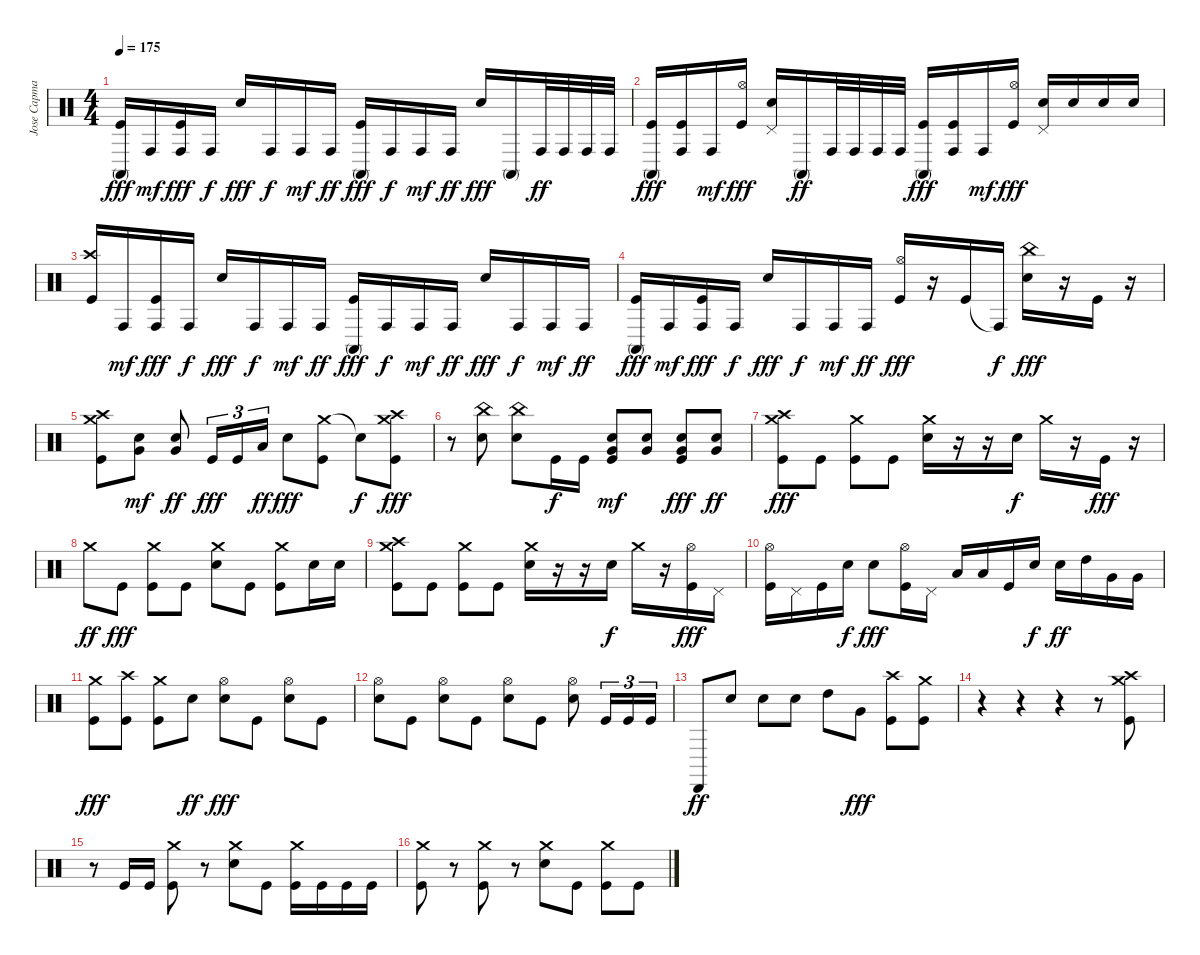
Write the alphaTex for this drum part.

\track ("Jose Capmany" "Jose Capma") {instrument percussion}
\staff {score}
\articulation defaults
\ts (4 4)
\tempo 175
\clef neutral
\ks c
("Conga high (mute)" "Kick (hit)").16{dy fff} "Conga high (hit)".16{dy mf} ("Conga high (hit)" "Kick (hit)").16{dy fff} "Conga high (hit)".16{dy f} "Snare (hit) 2".16{dy fff} "Conga high (hit)".16{dy f} "Conga high (hit)".16{dy mf} "Conga high (hit)".16{dy ff} ("Conga high (mute)" "Kick (hit)").16{dy fff} "Conga high (hit)".16{dy f} "Conga high (hit)".16{dy mf} "Conga high (hit)".16{dy ff} "Snare (hit) 2".16{dy fff} "Conga high (mute)".16 "Conga high (hit)".32{dy ff} "Conga high (hit)".32 "Conga high (hit)".32 "Conga high (hit)".32 |
("Conga high (mute)" "Kick (hit)").16{dy fff} ("Conga high (hit)" "Kick (hit)").16 "Conga high (hit)".16{dy mf} ("Hi-Hat (open)" "Kick (hit)").16{dy fff} ("Pedal Hi-Hat (hit)" "Snare (hit) 2").16 "Conga high (mute)".16{dy ff} "Conga high (hit)".32 "Conga high (hit)".32 "Conga high (hit)".32 "Conga high (hit)".32 ("Conga high (mute)" "Kick (hit)").16{dy fff} ("Conga high (hit)" "Kick (hit)").16 "Conga high (hit)".16{dy mf} ("Hi-Hat (open)" "Kick (hit)").16{dy fff} ("Pedal Hi-Hat (hit)" "Snare (hit) 2").16 "Snare (hit) 2".16 "Snare (hit) 2".16 "Snare (hit) 2".16 |
("Crash high (hit)" "Kick (hit)").16 "Conga high (hit)".16{dy mf} ("Conga high (hit)" "Kick (hit)").16{dy fff} "Conga high (hit)".16{dy f} "Snare (hit) 2".16{dy fff} "Conga high (hit)".16{dy f} "Conga high (hit)".16{dy mf} "Conga high (hit)".16{dy ff} ("Conga high (mute)" "Kick (hit)").16{dy fff} "Conga high (hit)".16{dy f} "Conga high (hit)".16{dy mf} "Conga high (hit)".16{dy ff} "Snare (hit) 2".16{dy fff} "Conga high (hit)".16{dy f} "Conga high (hit)".16{dy mf} "Conga high (hit)".16{dy ff} |
("Conga high (mute)" "Kick (hit)").16{dy fff} "Conga high (hit)".16{dy mf} ("Conga high (hit)" "Kick (hit)").16{dy fff} "Conga high (hit)".16{dy f} "Snare (hit) 2".16{dy fff} "Conga high (hit)".16{dy f} "Conga high (hit)".16{dy mf} "Conga high (hit)".16{dy ff} ("Hi-Hat (open)" "Kick (hit)").16{dy fff} r.16 "Kick (hit)".16 "Conga high (hit)"{t}.16{dy f} ("China (hit)" "Snare (hit) 2").16{dy fff} r.16 "Kick (hit)".16 r.16 |
("Crash high (hit)" "Crash medium (hit)" "Kick (hit)").8 ("Snare (hit) 2" "Very Low Tom (hit)").8{dy mf} ("Snare (hit) 2" "Very Low Tom (hit)").8{dy ff} "Kick (hit)".16{tu (3 2) dy fff} "Kick (hit)".16{tu (3 2)} "Low Floor Tom (hit)".16{tu (3 2) dy ff} "Snare (hit) 2".8{dy fff} ("Crash medium (hit)" "Kick (hit)").8 "Snare (hit)"{t}.8{dy f} ("Crash medium (hit)" "Crash high (hit)" "Kick (hit)").8{dy fff} |
r.8 ("China (hit)" "Snare (hit) 2").8 ("China (hit)" "Snare (hit) 2").8 "Kick (hit)".16{dy f} "Kick (hit)".16 ("Snare (hit) 2" "Very Low Tom (hit)" "Kick (hit)").8{dy mf} ("Snare (hit) 2" "Very Low Tom (hit)").8 ("Snare (hit) 2" "Very Low Tom (hit)" "Kick (hit)").8{dy fff} ("Snare (hit) 2" "Very Low Tom (hit)").8{dy ff} |
("Crash high (hit)" "Crash medium (hit)" "Kick (hit)").8{dy fff} "Kick (hit)".8 ("Crash medium (hit)" "Kick (hit)").8 "Kick (hit)".8 ("Crash medium (hit)" "Snare (hit) 2").16 r.16 r.16 "Snare (hit) 2".16{dy f} "Crash medium (hit)".16 r.16 "Kick (hit)".16{dy fff} r.16 |
"Crash medium (hit)".8{dy ff} "Kick (hit)".8{dy fff} ("Crash medium (hit)" "Kick (hit)").8 "Kick (hit)".8 ("Crash medium (hit)" "Snare (hit) 2").8 "Kick (hit)".8 ("Crash medium (hit)" "Kick (hit)").8 "Snare (hit) 2".16 "Snare (hit) 2".16 |
("Crash high (hit)" "Crash medium (hit)" "Kick (hit)").8 "Kick (hit)".8 ("Crash medium (hit)" "Kick (hit)").8 "Kick (hit)".8 ("Crash medium (hit)" "Snare (hit) 2").16 r.16 r.16 "Snare (hit) 2".16{dy f} "Crash medium (hit)".16 r.16 ("Hi-Hat (open)" "Kick (hit)").16{dy fff} "Pedal Hi-Hat (hit)".16 |
("Hi-Hat (open)" "Kick (hit)").16 "Pedal Hi-Hat (hit)".16 "Kick (hit)".16 "Snare (hit) 2".16{dy f} "Snare (hit) 2".8{dy fff} ("Hi-Hat (open)" "Kick (hit)").16 "Pedal Hi-Hat (hit)".16 "Low Floor Tom (hit)".16 "Low Floor Tom (hit)".16 "Kick (hit)".16 "Snare (hit) 2".16{dy f} "Snare (hit) 2".16{dy ff} "High Tom (hit)".16 "Very Low Tom (hit)".16 "Very Low Tom (hit)".16 |
("Crash medium (hit)" "Kick (hit)").8{dy fff} ("Crash high (hit)" "Kick (hit)").8 ("Crash medium (hit)" "Kick (hit)").8 "Snare (hit) 2".8{dy ff} ("Hi-Hat (open)" "Snare (hit) 2").8{dy fff} "Kick (hit)".8 ("Hi-Hat (open)" "Snare (hit) 2").8 "Kick (hit)".8 |
("Hi-Hat (open)" "Snare (hit) 2").8 "Kick (hit)".8 ("Hi-Hat (open)" "Snare (hit) 2").8 "Kick (hit)".8 ("Hi-Hat (open)" "Snare (hit) 2").8 "Kick (hit)".8 ("Hi-Hat (open)" "Snare (hit) 2").8 "Kick (hit)".16{tu (3 2)} "Kick (hit)".16{tu (3 2)} "Kick (hit)".16{tu (3 2)} |
"Cabasa (hit)".8{dy ff} "Snare (hit) 2".8 "Snare (hit) 2".8 "Snare (hit) 2".8 "High Tom (hit)".8 "Very Low Tom (hit)".8{dy fff} ("Crash high (hit)" "Kick (hit)").8 ("Crash medium (hit)" "Kick (hit)").8 |
r.4 r.4 r.4 r.8 ("Crash high (hit)" "Crash medium (hit)" "Kick (hit)").8 |
r.8 "Kick (hit)".16 "Kick (hit)".16 ("Crash medium (hit)" "Kick (hit)").8 r.8 ("Crash medium (hit)" "Snare (hit) 2").8 "Kick (hit)".8 ("Crash medium (hit)" "Kick (hit)").16 "Kick (hit)".16 "Kick (hit)".16 "Kick (hit)".16 |
("Crash medium (hit)" "Kick (hit)").8 r.8 ("Crash medium (hit)" "Kick (hit)").8 r.8 ("Crash medium (hit)" "Snare (hit) 2").8 "Kick (hit)".8 ("Crash medium (hit)" "Kick (hit)").8 "Kick (hit)".8
